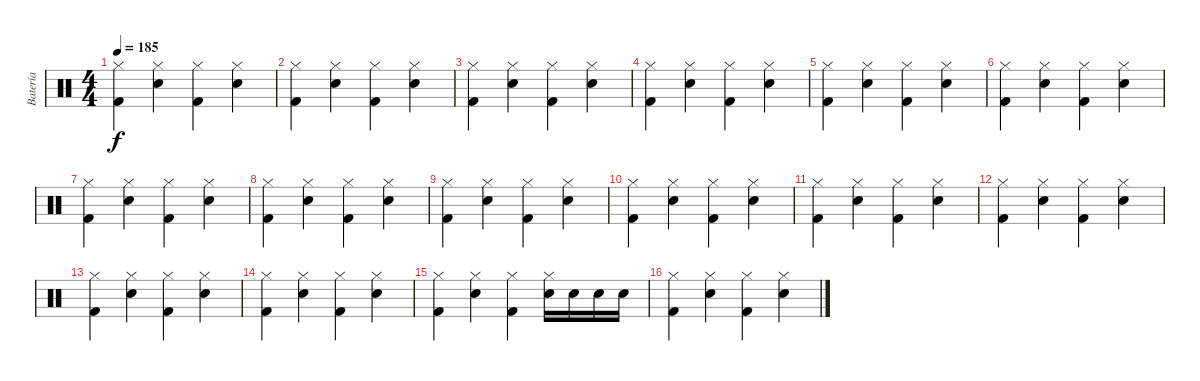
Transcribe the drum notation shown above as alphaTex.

\track ("Batería" "Batería") {instrument percussion}
\staff {score}
\articulation defaults
\ts (4 4)
\tempo 185
\clef neutral
\ks c
("Hi-Hat (closed)" "Kick (hit) 2").4{dy f} ("Hi-Hat (closed)" "Snare (hit) 2").4 ("Hi-Hat (closed)" "Kick (hit) 2").4 ("Hi-Hat (closed)" "Snare (hit) 2").4 |
("Hi-Hat (closed)" "Kick (hit) 2").4 ("Hi-Hat (closed)" "Snare (hit) 2").4 ("Hi-Hat (closed)" "Kick (hit) 2").4 ("Hi-Hat (closed)" "Snare (hit) 2").4 |
("Hi-Hat (closed)" "Kick (hit) 2").4 ("Hi-Hat (closed)" "Snare (hit) 2").4 ("Hi-Hat (closed)" "Kick (hit) 2").4 ("Hi-Hat (closed)" "Snare (hit) 2").4 |
("Hi-Hat (closed)" "Kick (hit) 2").4 ("Hi-Hat (closed)" "Snare (hit) 2").4 ("Hi-Hat (closed)" "Kick (hit) 2").4 ("Hi-Hat (closed)" "Snare (hit) 2").4 |
("Hi-Hat (closed)" "Kick (hit) 2").4 ("Hi-Hat (closed)" "Snare (hit) 2").4 ("Hi-Hat (closed)" "Kick (hit) 2").4 ("Hi-Hat (closed)" "Snare (hit) 2").4 |
("Hi-Hat (closed)" "Kick (hit) 2").4 ("Hi-Hat (closed)" "Snare (hit) 2").4 ("Hi-Hat (closed)" "Kick (hit) 2").4 ("Hi-Hat (closed)" "Snare (hit) 2").4 |
("Hi-Hat (closed)" "Kick (hit) 2").4 ("Hi-Hat (closed)" "Snare (hit) 2").4 ("Hi-Hat (closed)" "Kick (hit) 2").4 ("Hi-Hat (closed)" "Snare (hit) 2").4 |
("Hi-Hat (closed)" "Kick (hit) 2").4 ("Hi-Hat (closed)" "Snare (hit) 2").4 ("Hi-Hat (closed)" "Kick (hit) 2").4 ("Hi-Hat (closed)" "Snare (hit) 2").4 |
("Hi-Hat (closed)" "Kick (hit) 2").4 ("Hi-Hat (closed)" "Snare (hit) 2").4 ("Hi-Hat (closed)" "Kick (hit) 2").4 ("Hi-Hat (closed)" "Snare (hit) 2").4 |
("Hi-Hat (closed)" "Kick (hit) 2").4 ("Hi-Hat (closed)" "Snare (hit) 2").4 ("Hi-Hat (closed)" "Kick (hit) 2").4 ("Hi-Hat (closed)" "Snare (hit) 2").4 |
("Hi-Hat (closed)" "Kick (hit) 2").4 ("Hi-Hat (closed)" "Snare (hit) 2").4 ("Hi-Hat (closed)" "Kick (hit) 2").4 ("Hi-Hat (closed)" "Snare (hit) 2").4 |
("Hi-Hat (closed)" "Kick (hit) 2").4 ("Hi-Hat (closed)" "Snare (hit) 2").4 ("Hi-Hat (closed)" "Kick (hit) 2").4 ("Hi-Hat (closed)" "Snare (hit) 2").4 |
("Hi-Hat (closed)" "Kick (hit) 2").4 ("Hi-Hat (closed)" "Snare (hit) 2").4 ("Hi-Hat (closed)" "Kick (hit) 2").4 ("Hi-Hat (closed)" "Snare (hit) 2").4 |
("Hi-Hat (closed)" "Kick (hit) 2").4 ("Hi-Hat (closed)" "Snare (hit) 2").4 ("Hi-Hat (closed)" "Kick (hit) 2").4 ("Hi-Hat (closed)" "Snare (hit) 2").4 |
("Hi-Hat (closed)" "Kick (hit) 2").4 ("Hi-Hat (closed)" "Snare (hit) 2").4 ("Hi-Hat (closed)" "Kick (hit) 2").4 ("Snare (hit) 2" "Hi-Hat (closed)").16 "Snare (hit) 2".16 "Snare (hit) 2".16 "Snare (hit) 2".16 |
("Hi-Hat (closed)" "Kick (hit) 2").4 ("Hi-Hat (closed)" "Snare (hit) 2").4 ("Hi-Hat (closed)" "Kick (hit) 2").4 ("Hi-Hat (closed)" "Snare (hit) 2").4
